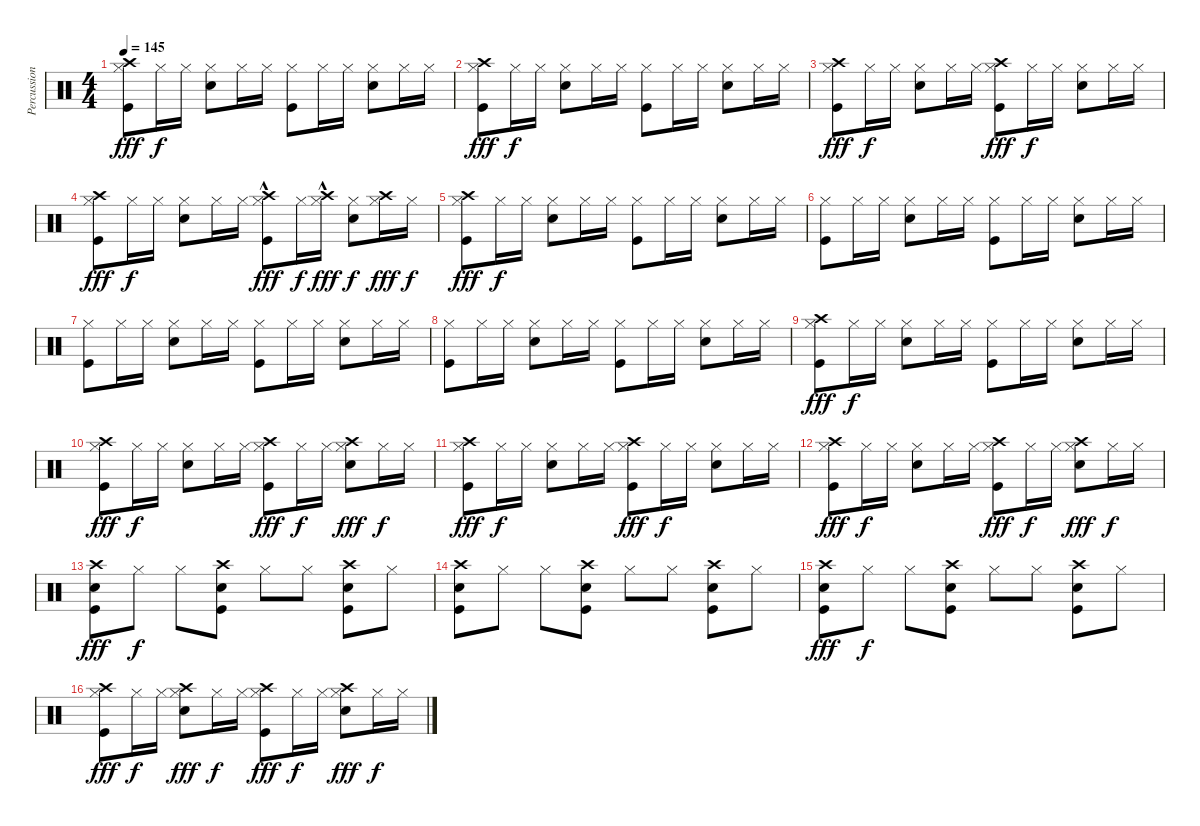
\track ("Percussion" "Percussion") {instrument percussion}
\staff {score}
\articulation defaults
\ts (4 4)
\tempo 145
\clef neutral
\ks c
("Crash high (hit)" "Kick (hit)" "Hi-Hat (closed)").8{dy fff} "Hi-Hat (closed)".16{dy f} "Hi-Hat (closed)".16 ("Snare (hit) 2" "Hi-Hat (closed)").8 "Hi-Hat (closed)".16 "Hi-Hat (closed)".16 ("Kick (hit)" "Hi-Hat (closed)").8 "Hi-Hat (closed)".16 "Hi-Hat (closed)".16 ("Snare (hit) 2" "Hi-Hat (closed)").8 "Hi-Hat (closed)".16 "Hi-Hat (closed)".16 |
("Crash high (hit)" "Kick (hit)" "Hi-Hat (closed)").8{dy fff} "Hi-Hat (closed)".16{dy f} "Hi-Hat (closed)".16 ("Snare (hit) 2" "Hi-Hat (closed)").8 "Hi-Hat (closed)".16 "Hi-Hat (closed)".16 ("Kick (hit)" "Hi-Hat (closed)").8 "Hi-Hat (closed)".16 "Hi-Hat (closed)".16 ("Snare (hit) 2" "Hi-Hat (closed)").8 "Hi-Hat (closed)".16 "Hi-Hat (closed)".16 |
("Crash high (hit)" "Kick (hit)" "Hi-Hat (closed)").8{dy fff} "Hi-Hat (closed)".16{dy f} "Hi-Hat (closed)".16 ("Snare (hit) 2" "Hi-Hat (closed)").8 "Hi-Hat (closed)".16 "Hi-Hat (closed)".16 ("Crash high (hit)" "Kick (hit)" "Hi-Hat (closed)").8{dy fff} "Hi-Hat (closed)".16{dy f} "Hi-Hat (closed)".16 ("Snare (hit) 2" "Hi-Hat (closed)").8 "Hi-Hat (closed)".16 "Hi-Hat (closed)".16 |
("Crash high (hit)" "Kick (hit)" "Hi-Hat (closed)").8{dy fff} "Hi-Hat (closed)".16{dy f} "Hi-Hat (closed)".16 ("Snare (hit) 2" "Hi-Hat (closed)").8 "Hi-Hat (closed)".16 "Hi-Hat (closed)".16 ("Crash high (hit)"{hac} "Kick (hit)" "Hi-Hat (closed)").8{dy fff} "Hi-Hat (closed)".16{dy f} ("Crash high (hit)"{hac} "Hi-Hat (closed)").16{dy fff} ("Snare (hit) 2" "Hi-Hat (closed)").8{dy f} ("Crash high (hit)" "Hi-Hat (closed)").16{dy fff} "Hi-Hat (closed)".16{dy f} |
("Crash high (hit)" "Hi-Hat (closed)" "Kick (hit)").8{dy fff} "Hi-Hat (closed)".16{dy f} "Hi-Hat (closed)".16 ("Hi-Hat (closed)" "Snare (hit) 2").8 "Hi-Hat (closed)".16 "Hi-Hat (closed)".16 ("Hi-Hat (closed)" "Kick (hit)").8 "Hi-Hat (closed)".16 "Hi-Hat (closed)".16 ("Hi-Hat (closed)" "Snare (hit) 2").8 "Hi-Hat (closed)".16 "Hi-Hat (closed)".16 |
("Kick (hit)" "Hi-Hat (closed)").8 "Hi-Hat (closed)".16 "Hi-Hat (closed)".16 ("Snare (hit) 2" "Hi-Hat (closed)").8 "Hi-Hat (closed)".16 "Hi-Hat (closed)".16 ("Kick (hit)" "Hi-Hat (closed)").8 "Hi-Hat (closed)".16 "Hi-Hat (closed)".16 ("Snare (hit) 2" "Hi-Hat (closed)").8 "Hi-Hat (closed)".16 "Hi-Hat (closed)".16 |
("Kick (hit)" "Hi-Hat (closed)").8 "Hi-Hat (closed)".16 "Hi-Hat (closed)".16 ("Snare (hit) 2" "Hi-Hat (closed)").8 "Hi-Hat (closed)".16 "Hi-Hat (closed)".16 ("Kick (hit)" "Hi-Hat (closed)").8 "Hi-Hat (closed)".16 "Hi-Hat (closed)".16 ("Snare (hit) 2" "Hi-Hat (closed)").8 "Hi-Hat (closed)".16 "Hi-Hat (closed)".16 |
("Kick (hit)" "Hi-Hat (closed)").8 "Hi-Hat (closed)".16 "Hi-Hat (closed)".16 ("Snare (hit) 2" "Hi-Hat (closed)").8 "Hi-Hat (closed)".16 "Hi-Hat (closed)".16 ("Kick (hit)" "Hi-Hat (closed)").8 "Hi-Hat (closed)".16 "Hi-Hat (closed)".16 ("Snare (hit) 2" "Hi-Hat (closed)").8 "Hi-Hat (closed)".16 "Hi-Hat (closed)".16 |
("Crash high (hit)" "Hi-Hat (closed)" "Kick (hit)").8{dy fff} "Hi-Hat (closed)".16{dy f} "Hi-Hat (closed)".16 ("Hi-Hat (closed)" "Snare (hit) 2").8 "Hi-Hat (closed)".16 "Hi-Hat (closed)".16 ("Hi-Hat (closed)" "Kick (hit)").8 "Hi-Hat (closed)".16 "Hi-Hat (closed)".16 ("Hi-Hat (closed)" "Snare (hit) 2").8 "Hi-Hat (closed)".16 "Hi-Hat (closed)".16 |
("Crash high (hit)" "Kick (hit)" "Hi-Hat (closed)").8{dy fff} "Hi-Hat (closed)".16{dy f} "Hi-Hat (closed)".16 ("Snare (hit) 2" "Hi-Hat (closed)").8 "Hi-Hat (closed)".16 "Hi-Hat (closed)".16 ("Crash high (hit)" "Kick (hit)" "Hi-Hat (closed)").8{dy fff} "Hi-Hat (closed)".16{dy f} "Hi-Hat (closed)".16 ("Crash high (hit)" "Snare (hit) 2" "Hi-Hat (closed)").8{dy fff} "Hi-Hat (closed)".16{dy f} "Hi-Hat (closed)".16 |
("Crash high (hit)" "Kick (hit)" "Hi-Hat (closed)").8{dy fff} "Hi-Hat (closed)".16{dy f} "Hi-Hat (closed)".16 ("Snare (hit) 2" "Hi-Hat (closed)").8 "Hi-Hat (closed)".16 "Hi-Hat (closed)".16 ("Crash high (hit)" "Kick (hit)" "Hi-Hat (closed)").8{dy fff} "Hi-Hat (closed)".16{dy f} "Hi-Hat (closed)".16 ("Snare (hit) 2" "Hi-Hat (closed)").8 "Hi-Hat (closed)".16 "Hi-Hat (closed)".16 |
("Hi-Hat (closed)" "Kick (hit)" "Crash high (hit)").8{dy fff} "Hi-Hat (closed)".16{dy f} "Hi-Hat (closed)".16 ("Hi-Hat (closed)" "Snare (hit) 2").8 "Hi-Hat (closed)".16 "Hi-Hat (closed)".16 ("Hi-Hat (closed)" "Kick (hit)" "Crash high (hit)").8{dy fff} "Hi-Hat (closed)".16{dy f} "Hi-Hat (closed)".16 ("Hi-Hat (closed)" "Snare (hit) 2" "Crash high (hit)").8{dy fff} "Hi-Hat (closed)".16{dy f} "Hi-Hat (closed)".16 |
("Crash high (hit)" "Kick (hit)" "Snare (hit) 2").8{dy fff} "Hi-Hat (closed)".8{dy f} "Hi-Hat (closed)".8 ("Kick (hit)" "Snare (hit) 2" "Crash high (hit)").8 "Hi-Hat (closed)".8 "Hi-Hat (closed)".8 ("Crash high (hit)" "Snare (hit) 2" "Kick (hit)").8 "Hi-Hat (closed)".8 |
("Crash high (hit)" "Snare (hit) 2" "Kick (hit)").8 "Hi-Hat (closed)".8 "Hi-Hat (closed)".8 ("Kick (hit)" "Snare (hit) 2" "Crash high (hit)").8 "Hi-Hat (closed)".8 "Hi-Hat (closed)".8 ("Kick (hit)" "Snare (hit) 2" "Crash high (hit)").8 "Hi-Hat (closed)".8 |
("Kick (hit)" "Snare (hit) 2" "Crash high (hit)").8{dy fff} "Hi-Hat (closed)".8{dy f} "Hi-Hat (closed)".8 ("Kick (hit)" "Snare (hit) 2" "Crash high (hit)").8 "Hi-Hat (closed)".8 "Hi-Hat (closed)".8 ("Kick (hit)" "Snare (hit) 2" "Crash high (hit)").8 "Hi-Hat (closed)".8 |
("Crash high (hit)" "Kick (hit)" "Hi-Hat (closed)").8{dy fff} "Hi-Hat (closed)".16{dy f} "Hi-Hat (closed)".16 ("Crash high (hit)" "Snare (hit) 2" "Hi-Hat (closed)").8{dy fff} "Hi-Hat (closed)".16{dy f} "Hi-Hat (closed)".16 ("Crash high (hit)" "Kick (hit)" "Hi-Hat (closed)").8{dy fff} "Hi-Hat (closed)".16{dy f} "Hi-Hat (closed)".16 ("Crash high (hit)" "Snare (hit) 2" "Hi-Hat (closed)").8{dy fff} "Hi-Hat (closed)".16{dy f} "Hi-Hat (closed)".16
